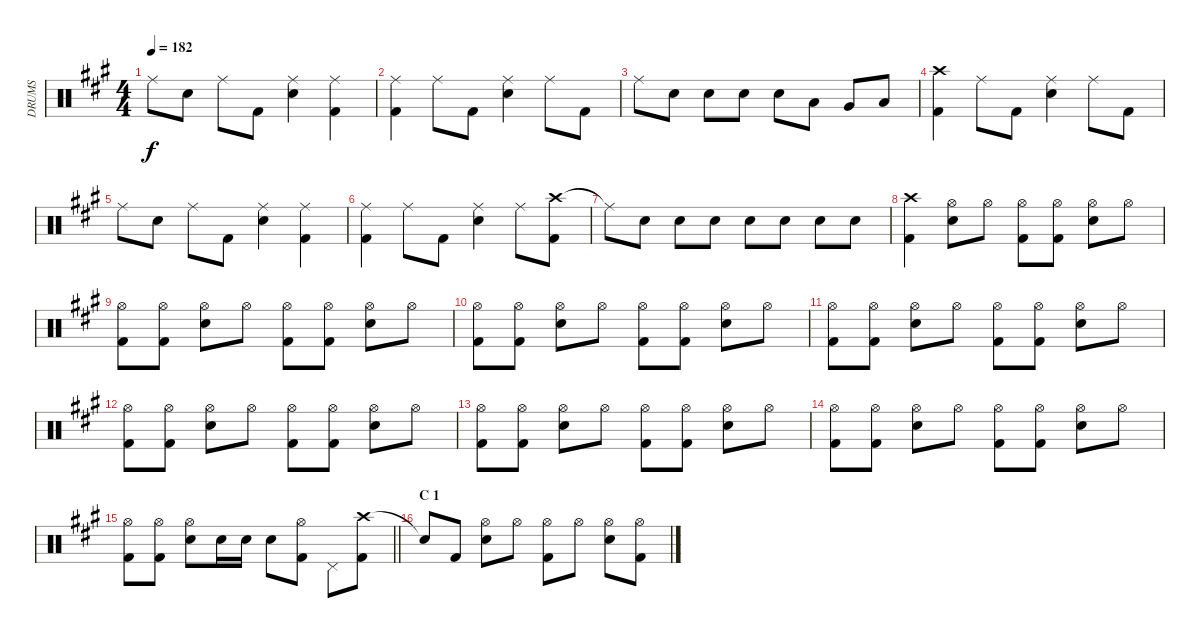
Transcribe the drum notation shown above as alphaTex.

\track ("DRUMS" "DRUMS") {instrument percussion}
\staff {score}
\articulation defaults
\ts (4 4)
\tempo 182
\clef neutral
\ks a "Ride (middle)".8{dy f} "Snare (hit) 2".8 "Ride (middle)".8 "Kick (hit) 2".8
("Ride (middle)" "Snare (hit) 2").4 ("Ride (middle)" "Kick (hit) 2").4 |
("Ride (middle)" "Kick (hit) 2").4 "Ride (middle)".8 "Kick (hit) 2".8 ("Ride (middle)" "Snare (hit) 2").4 "Ride (middle)".8 "Kick (hit) 2".8 |
"Ride (middle)".8 "Snare (hit) 2".8 "Snare (hit) 2".8 "Snare (hit) 2".8 "Snare (hit) 2".8 "Low Tom (hit)".8 "Very Low Tom (hit)".8 "Low Floor Tom (hit)".8 |
("Crash high (hit)" "Kick (hit) 2").4 "Ride (middle)".8 "Kick (hit) 2".8 ("Ride (middle)" "Snare (hit) 2").4 "Ride (middle)".8 "Kick (hit) 2".8 |
"Ride (middle)".8 "Snare (hit) 2".8 "Ride (middle)".8 "Kick (hit) 2".8 ("Ride (middle)" "Snare (hit) 2").4 ("Ride (middle)" "Kick (hit) 2").4 |
("Ride (middle)" "Kick (hit) 2").4 "Ride (middle)".8 "Kick (hit) 2".8 ("Ride (middle)" "Snare (hit) 2").4 "Ride (middle)".8 ("Crash high (hit)" "Kick (hit) 2").8 |
"Ride (middle)"{t}.8 "Snare (hit) 2".8 "Snare (hit) 2".8 "Snare (hit) 2".8 "Snare (hit) 2".8 "Snare (hit) 2".8 "Snare (hit) 2".8 "Snare (hit) 2".8 |
("Crash high (hit)" "Kick (hit) 2").4 ("Hi-Hat (open)" "Snare (hit) 2").8 "Hi-Hat (open)".8 ("Hi-Hat (open)" "Kick (hit) 2").8 ("Hi-Hat (open)" "Kick (hit) 2").8 ("Hi-Hat (open)" "Snare (hit) 2").8 "Hi-Hat (open)".8 |
("Hi-Hat (open)" "Kick (hit) 2").8 ("Hi-Hat (open)" "Kick (hit) 2").8 ("Hi-Hat (open)" "Snare (hit) 2").8 "Hi-Hat (open)".8 ("Hi-Hat (open)" "Kick (hit) 2").8 ("Hi-Hat (open)" "Kick (hit) 2").8 ("Hi-Hat (open)" "Snare (hit) 2").8 "Hi-Hat (open)".8 |
("Hi-Hat (open)" "Kick (hit) 2").8 ("Hi-Hat (open)" "Kick (hit) 2").8 ("Hi-Hat (open)" "Snare (hit) 2").8 "Hi-Hat (open)".8 ("Hi-Hat (open)" "Kick (hit) 2").8 ("Hi-Hat (open)" "Kick (hit) 2").8 ("Hi-Hat (open)" "Snare (hit) 2").8 "Hi-Hat (open)".8 |
("Hi-Hat (open)" "Kick (hit) 2").8 ("Hi-Hat (open)" "Kick (hit) 2").8 ("Hi-Hat (open)" "Snare (hit) 2").8 "Hi-Hat (open)".8 ("Hi-Hat (open)" "Kick (hit) 2").8 ("Hi-Hat (open)" "Kick (hit) 2").8 ("Hi-Hat (open)" "Snare (hit) 2").8 "Hi-Hat (open)".8 |
("Hi-Hat (open)" "Kick (hit) 2").8 ("Hi-Hat (open)" "Kick (hit) 2").8 ("Hi-Hat (open)" "Snare (hit) 2").8 "Hi-Hat (open)".8 ("Hi-Hat (open)" "Kick (hit) 2").8 ("Hi-Hat (open)" "Kick (hit) 2").8 ("Hi-Hat (open)" "Snare (hit) 2").8 "Hi-Hat (open)".8 |
("Hi-Hat (open)" "Kick (hit) 2").8 ("Hi-Hat (open)" "Kick (hit) 2").8 ("Hi-Hat (open)" "Snare (hit) 2").8 "Hi-Hat (open)".8 ("Hi-Hat (open)" "Kick (hit) 2").8 ("Hi-Hat (open)" "Kick (hit) 2").8 ("Hi-Hat (open)" "Snare (hit) 2").8 "Hi-Hat (open)".8 |
("Hi-Hat (open)" "Kick (hit) 2").8 ("Hi-Hat (open)" "Kick (hit) 2").8 ("Hi-Hat (open)" "Snare (hit) 2").8 "Hi-Hat (open)".8 ("Hi-Hat (open)" "Kick (hit) 2").8 ("Hi-Hat (open)" "Kick (hit) 2").8 ("Hi-Hat (open)" "Snare (hit) 2").8 "Hi-Hat (open)".8 |
\barLineRight lightlight
("Hi-Hat (open)" "Kick (hit) 2").8 ("Hi-Hat (open)" "Kick (hit) 2").8 ("Hi-Hat (open)" "Snare (hit) 2").8 "Snare (hit) 2".16 "Snare (hit) 2".16 "Snare (hit) 2".8 ("Hi-Hat (open)" "Kick (hit) 2").8 "Pedal Hi-Hat (hit)".8 ("Crash high (hit)" "Kick (hit) 2").8 |
\section ("" "C 1")
"Snare (hit)"{t}.8 "Kick (hit) 2".8 ("Hi-Hat (open)" "Snare (hit) 2").8 "Hi-Hat (open)".8 ("Hi-Hat (open)" "Kick (hit) 2").8 "Hi-Hat (open)".8 ("Hi-Hat (open)" "Snare (hit) 2").8 ("Hi-Hat (open)" "Kick (hit) 2").8
